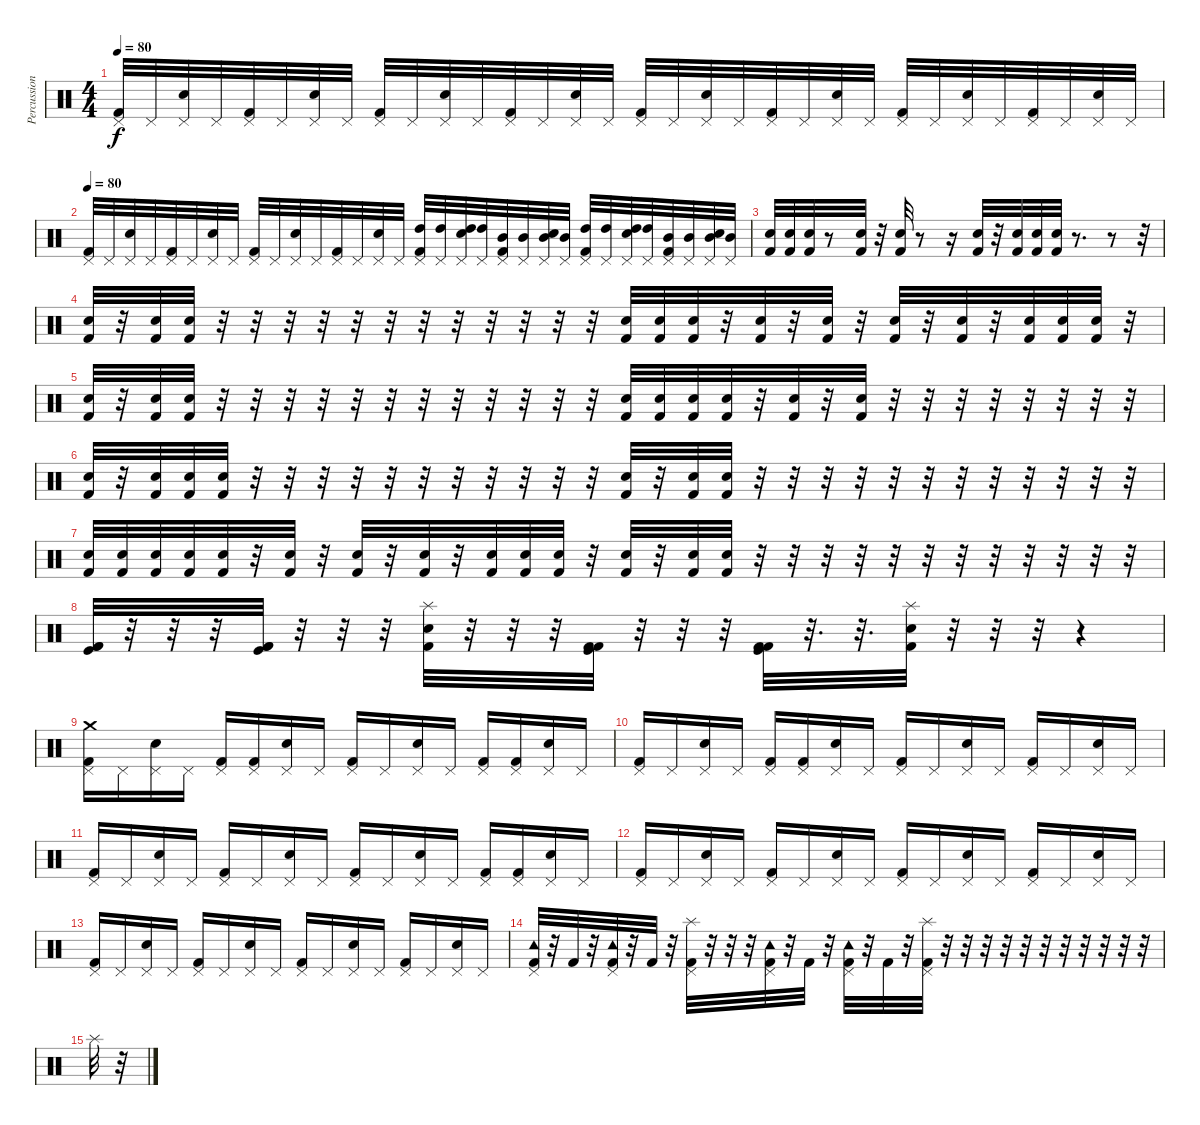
\track ("Percussion" "Percussion") {instrument percussion}
\staff {score}
\articulation defaults
\ts (4 4)
\tempo 80
\clef neutral
\ks c
("Kick (hit) 2" "Pedal Hi-Hat (hit)").32{dy f} "Pedal Hi-Hat (hit)".32 ("Pedal Hi-Hat (hit)" "Electric Snare (hit)").32 "Pedal Hi-Hat (hit)".32 ("Kick (hit) 2" "Pedal Hi-Hat (hit)").32 "Pedal Hi-Hat (hit)".32 ("Pedal Hi-Hat (hit)" "Electric Snare (hit)").32 "Pedal Hi-Hat (hit)".32 ("Kick (hit) 2" "Pedal Hi-Hat (hit)").32 "Pedal Hi-Hat (hit)".32 ("Pedal Hi-Hat (hit)" "Electric Snare (hit)").32 "Pedal Hi-Hat (hit)".32 ("Kick (hit) 2" "Pedal Hi-Hat (hit)").32 "Pedal Hi-Hat (hit)".32 ("Pedal Hi-Hat (hit)" "Electric Snare (hit)").32 "Pedal Hi-Hat (hit)".32 ("Kick (hit) 2" "Pedal Hi-Hat (hit)").32 "Pedal Hi-Hat (hit)".32 ("Pedal Hi-Hat (hit)" "Electric Snare (hit)").32 "Pedal Hi-Hat (hit)".32 ("Kick (hit) 2" "Pedal Hi-Hat (hit)").32 "Pedal Hi-Hat (hit)".32 ("Pedal Hi-Hat (hit)" "Electric Snare (hit)").32 "Pedal Hi-Hat (hit)".32 ("Kick (hit) 2" "Pedal Hi-Hat (hit)").32 "Pedal Hi-Hat (hit)".32 ("Pedal Hi-Hat (hit)" "Electric Snare (hit)").32 "Pedal Hi-Hat (hit)".32 ("Kick (hit) 2" "Pedal Hi-Hat (hit)").32 "Pedal Hi-Hat (hit)".32 ("Pedal Hi-Hat (hit)" "Electric Snare (hit)").32 "Pedal Hi-Hat (hit)".32 |
\tempo 80
("Kick (hit) 2" "Pedal Hi-Hat (hit)").32 "Pedal Hi-Hat (hit)".32 ("Pedal Hi-Hat (hit)" "Electric Snare (hit)").32 "Pedal Hi-Hat (hit)".32 ("Kick (hit) 2" "Pedal Hi-Hat (hit)").32 "Pedal Hi-Hat (hit)".32 ("Pedal Hi-Hat (hit)" "Electric Snare (hit)").32 "Pedal Hi-Hat (hit)".32 ("Kick (hit) 2" "Pedal Hi-Hat (hit)").32 "Pedal Hi-Hat (hit)".32 ("Pedal Hi-Hat (hit)" "Electric Snare (hit)").32 "Pedal Hi-Hat (hit)".32 ("Kick (hit) 2" "Pedal Hi-Hat (hit)").32 "Pedal Hi-Hat (hit)".32 ("Pedal Hi-Hat (hit)" "Electric Snare (hit)").32 "Pedal Hi-Hat (hit)".32 ("Kick (hit) 2" "Pedal Hi-Hat (hit)" "High Tom (hit)").32 ("Pedal Hi-Hat (hit)" "High Tom (hit)").32 ("Pedal Hi-Hat (hit)" "Electric Snare (hit)" "High Tom (hit)").32 ("Pedal Hi-Hat (hit)" "High Tom (hit)").32 ("Kick (hit) 2" "Pedal Hi-Hat (hit)" "Mid Tom (hit)").32 ("Pedal Hi-Hat (hit)" "Mid Tom (hit)").32 ("Pedal Hi-Hat (hit)" "Electric Snare (hit)" "Mid Tom (hit)").32 ("Pedal Hi-Hat (hit)" "Mid Tom (hit)").32 ("Kick (hit) 2" "Pedal Hi-Hat (hit)" "High Tom (hit)").32 ("Pedal Hi-Hat (hit)" "High Tom (hit)").32 ("Pedal Hi-Hat (hit)" "Electric Snare (hit)" "High Tom (hit)").32 ("Pedal Hi-Hat (hit)" "High Tom (hit)").32 ("Kick (hit) 2" "Pedal Hi-Hat (hit)" "Mid Tom (hit)").32 ("Pedal Hi-Hat (hit)" "Mid Tom (hit)").32 ("Pedal Hi-Hat (hit)" "Electric Snare (hit)" "Mid Tom (hit)").32 ("Pedal Hi-Hat (hit)" "Mid Tom (hit)").32 |
("Kick (hit) 2" "Electric Snare (hit)").32 ("Kick (hit) 2" "Electric Snare (hit)").32 ("Kick (hit) 2" "Electric Snare (hit)").32 r.8 ("Kick (hit) 2" "Electric Snare (hit)").32 r.32 ("Kick (hit) 2" "Electric Snare (hit)").32 r.8 r.16 ("Kick (hit) 2" "Electric Snare (hit)").32 r.32 ("Kick (hit) 2" "Electric Snare (hit)").32 ("Kick (hit) 2" "Electric Snare (hit)").32 ("Kick (hit) 2" "Electric Snare (hit)").32 r.8{d} r.8 r.32 |
("Kick (hit) 2" "Electric Snare (hit)").32 r.32 ("Kick (hit) 2" "Electric Snare (hit)").32 ("Kick (hit) 2" "Electric Snare (hit)").32 r.32 r.32 r.32 r.32 r.32 r.32 r.32 r.32 r.32 r.32 r.32 r.32 ("Kick (hit) 2" "Electric Snare (hit)").32 ("Kick (hit) 2" "Electric Snare (hit)").32 ("Kick (hit) 2" "Electric Snare (hit)").32 r.32 ("Kick (hit) 2" "Electric Snare (hit)").32 r.32 ("Kick (hit) 2" "Electric Snare (hit)").32 r.32 ("Kick (hit) 2" "Electric Snare (hit)").32 r.32 ("Kick (hit) 2" "Electric Snare (hit)").32 r.32 ("Kick (hit) 2" "Electric Snare (hit)").32 ("Kick (hit) 2" "Electric Snare (hit)").32 ("Kick (hit) 2" "Electric Snare (hit)").32 r.32 |
("Kick (hit) 2" "Electric Snare (hit)").32 r.32 ("Kick (hit) 2" "Electric Snare (hit)").32 ("Kick (hit) 2" "Electric Snare (hit)").32 r.32 r.32 r.32 r.32 r.32 r.32 r.32 r.32 r.32 r.32 r.32 r.32 ("Kick (hit) 2" "Electric Snare (hit)").32 ("Kick (hit) 2" "Electric Snare (hit)").32 ("Kick (hit) 2" "Electric Snare (hit)").32 ("Kick (hit) 2" "Electric Snare (hit)").32 r.32 ("Kick (hit) 2" "Electric Snare (hit)").32 r.32 ("Kick (hit) 2" "Electric Snare (hit)").32 r.32 r.32 r.32 r.32 r.32 r.32 r.32 r.32 |
("Kick (hit) 2" "Electric Snare (hit)").32 r.32 ("Kick (hit) 2" "Electric Snare (hit)").32 ("Kick (hit) 2" "Electric Snare (hit)").32 ("Kick (hit) 2" "Electric Snare (hit)").32 r.32 r.32 r.32 r.32 r.32 r.32 r.32 r.32 r.32 r.32 r.32 ("Kick (hit) 2" "Electric Snare (hit)").32 r.32 ("Kick (hit) 2" "Electric Snare (hit)").32 ("Kick (hit) 2" "Electric Snare (hit)").32 r.32 r.32 r.32 r.32 r.32 r.32 r.32 r.32 r.32 r.32 r.32 r.32 |
("Kick (hit) 2" "Electric Snare (hit)").32 ("Kick (hit) 2" "Electric Snare (hit)").32 ("Kick (hit) 2" "Electric Snare (hit)").32 ("Kick (hit) 2" "Electric Snare (hit)").32 ("Kick (hit) 2" "Electric Snare (hit)").32 r.32 ("Kick (hit) 2" "Electric Snare (hit)").32 r.32 ("Kick (hit) 2" "Electric Snare (hit)").32 r.32 ("Kick (hit) 2" "Electric Snare (hit)").32 r.32 ("Kick (hit) 2" "Electric Snare (hit)").32 ("Kick (hit) 2" "Electric Snare (hit)").32 ("Kick (hit) 2" "Electric Snare (hit)").32 r.32 ("Kick (hit) 2" "Electric Snare (hit)").32 r.32 ("Kick (hit) 2" "Electric Snare (hit)").32 ("Kick (hit) 2" "Electric Snare (hit)").32 r.32 r.32 r.32 r.32 r.32 r.32 r.32 r.32 r.32 r.32 r.32 r.32 |
("Kick (hit) 2" "Kick (hit) 2" "Kick (hit)").32 r.32 r.32 r.32 ("Kick (hit) 2" "Kick (hit) 2" "Kick (hit)").32 r.32 r.32 r.32 ("Kick (hit) 2" "Electric Snare (hit)" "Splash (hit)").32 r.32 r.32 r.32 ("Kick (hit) 2" "Kick (hit) 2" "Kick (hit)").32 r.32 r.32 r.32 ("Kick (hit) 2" "Kick (hit) 2" "Kick (hit)").32 r.32{d} r.32{d} ("Kick (hit) 2" "Electric Snare (hit)" "Splash (hit)").32 r.32 r.32 r.32 r.4 |
("Kick (hit) 2" "Pedal Hi-Hat (hit)" "Crash medium (hit)").16 "Pedal Hi-Hat (hit)".16 ("Pedal Hi-Hat (hit)" "Electric Snare (hit)").16 "Pedal Hi-Hat (hit)".16 ("Kick (hit) 2" "Pedal Hi-Hat (hit)").16 ("Kick (hit) 2" "Pedal Hi-Hat (hit)").16 ("Pedal Hi-Hat (hit)" "Electric Snare (hit)").16 "Pedal Hi-Hat (hit)".16 ("Kick (hit) 2" "Pedal Hi-Hat (hit)").16 "Pedal Hi-Hat (hit)".16 ("Pedal Hi-Hat (hit)" "Electric Snare (hit)").16 "Pedal Hi-Hat (hit)".16 ("Kick (hit) 2" "Pedal Hi-Hat (hit)").16 ("Kick (hit) 2" "Pedal Hi-Hat (hit)").16 ("Pedal Hi-Hat (hit)" "Electric Snare (hit)").16 "Pedal Hi-Hat (hit)".16 |
("Kick (hit) 2" "Pedal Hi-Hat (hit)").16 "Pedal Hi-Hat (hit)".16 ("Pedal Hi-Hat (hit)" "Electric Snare (hit)").16 "Pedal Hi-Hat (hit)".16 ("Kick (hit) 2" "Pedal Hi-Hat (hit)").16 ("Kick (hit) 2" "Pedal Hi-Hat (hit)").16 ("Pedal Hi-Hat (hit)" "Electric Snare (hit)").16 "Pedal Hi-Hat (hit)".16 ("Kick (hit) 2" "Pedal Hi-Hat (hit)").16 "Pedal Hi-Hat (hit)".16 ("Pedal Hi-Hat (hit)" "Electric Snare (hit)").16 "Pedal Hi-Hat (hit)".16 ("Kick (hit) 2" "Pedal Hi-Hat (hit)").16 "Pedal Hi-Hat (hit)".16 ("Pedal Hi-Hat (hit)" "Electric Snare (hit)").16 "Pedal Hi-Hat (hit)".16 |
("Kick (hit) 2" "Pedal Hi-Hat (hit)").16 "Pedal Hi-Hat (hit)".16 ("Pedal Hi-Hat (hit)" "Electric Snare (hit)").16 "Pedal Hi-Hat (hit)".16 ("Kick (hit) 2" "Pedal Hi-Hat (hit)").16 "Pedal Hi-Hat (hit)".16 ("Pedal Hi-Hat (hit)" "Electric Snare (hit)").16 "Pedal Hi-Hat (hit)".16 ("Kick (hit) 2" "Pedal Hi-Hat (hit)").16 "Pedal Hi-Hat (hit)".16 ("Pedal Hi-Hat (hit)" "Electric Snare (hit)").16 "Pedal Hi-Hat (hit)".16 ("Kick (hit) 2" "Pedal Hi-Hat (hit)").16 ("Kick (hit) 2" "Pedal Hi-Hat (hit)").16 ("Pedal Hi-Hat (hit)" "Electric Snare (hit)").16 "Pedal Hi-Hat (hit)".16 |
("Kick (hit) 2" "Pedal Hi-Hat (hit)").16 "Pedal Hi-Hat (hit)".16 ("Pedal Hi-Hat (hit)" "Electric Snare (hit)").16 "Pedal Hi-Hat (hit)".16 ("Kick (hit) 2" "Pedal Hi-Hat (hit)").16 "Pedal Hi-Hat (hit)".16 ("Pedal Hi-Hat (hit)" "Electric Snare (hit)").16 "Pedal Hi-Hat (hit)".16 ("Kick (hit) 2" "Pedal Hi-Hat (hit)").16 "Pedal Hi-Hat (hit)".16 ("Pedal Hi-Hat (hit)" "Electric Snare (hit)").16 "Pedal Hi-Hat (hit)".16 ("Kick (hit) 2" "Pedal Hi-Hat (hit)").16 "Pedal Hi-Hat (hit)".16 ("Pedal Hi-Hat (hit)" "Electric Snare (hit)").16 "Pedal Hi-Hat (hit)".16 |
("Kick (hit) 2" "Pedal Hi-Hat (hit)").16 "Pedal Hi-Hat (hit)".16 ("Pedal Hi-Hat (hit)" "Electric Snare (hit)").16 "Pedal Hi-Hat (hit)".16 ("Kick (hit) 2" "Pedal Hi-Hat (hit)").16 "Pedal Hi-Hat (hit)".16 ("Pedal Hi-Hat (hit)" "Electric Snare (hit)").16 "Pedal Hi-Hat (hit)".16 ("Kick (hit) 2" "Pedal Hi-Hat (hit)").16 "Pedal Hi-Hat (hit)".16 ("Pedal Hi-Hat (hit)" "Electric Snare (hit)").16 "Pedal Hi-Hat (hit)".16 ("Kick (hit) 2" "Pedal Hi-Hat (hit)").16 "Pedal Hi-Hat (hit)".16 ("Pedal Hi-Hat (hit)" "Electric Snare (hit)").16 "Pedal Hi-Hat (hit)".16 |
("Kick (hit) 2" "Pedal Hi-Hat (hit)" "Tambourine (hit)").32 r.32 "Kick (hit) 2".32 r.32 ("Kick (hit) 2" "Pedal Hi-Hat (hit)" "Tambourine (hit)").32 r.32 "Kick (hit) 2".32 r.32 ("Kick (hit) 2" "Pedal Hi-Hat (hit)" "Splash (hit)").32 r.32 r.32 r.32 ("Kick (hit) 2" "Pedal Hi-Hat (hit)" "Tambourine (hit)").32 r.32 "Kick (hit) 2".32 r.32 ("Kick (hit) 2" "Pedal Hi-Hat (hit)" "Tambourine (hit)").32 r.32 "Kick (hit) 2".32 r.32 ("Kick (hit) 2" "Pedal Hi-Hat (hit)" "Splash (hit)").32 r.32 r.32 r.32 r.32 r.32 r.32 r.32 r.32 r.32 r.32 r.32 |
"Splash (hit)".32 r.32
